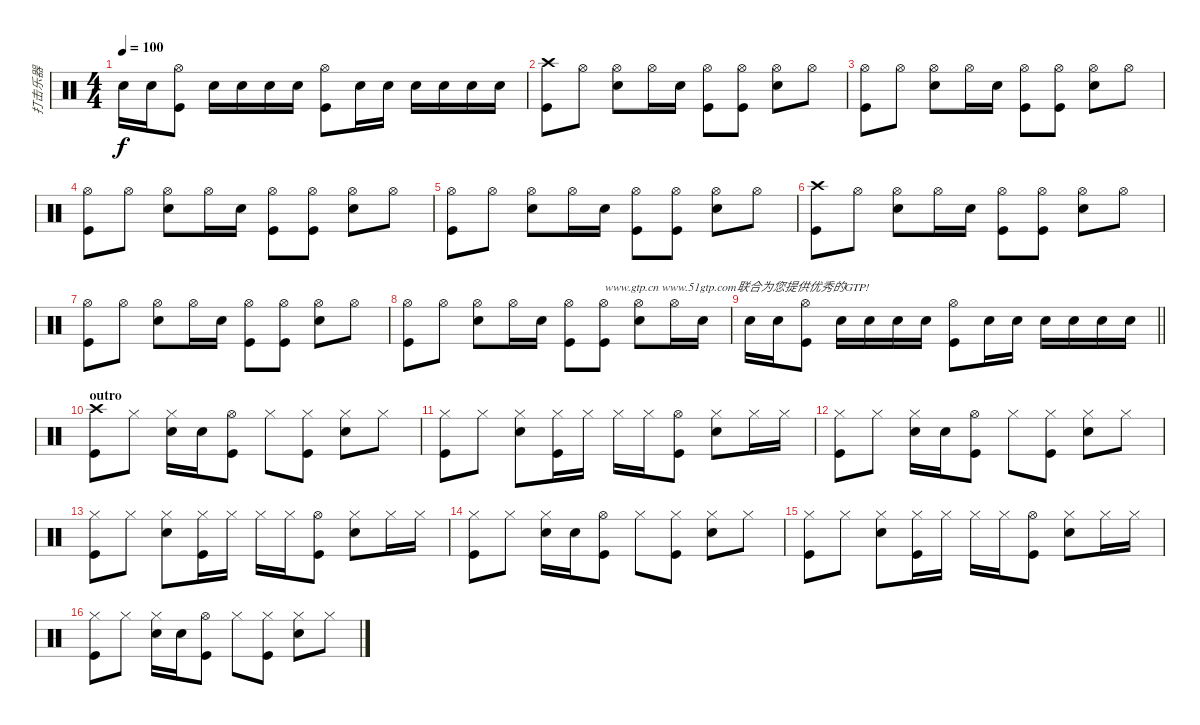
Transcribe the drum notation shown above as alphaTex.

\track ("打击乐器" "打击乐器") {instrument percussion}
\staff {score}
\articulation defaults
\ts (4 4)
\tempo 100
\clef neutral
\ks c "Electric Snare (hit)".16{dy f} "Electric Snare (hit)".16
("Hi-Hat (open)" "Kick (hit)").8 "Electric Snare (hit)".16 "Electric Snare (hit)".16 "Electric Snare (hit)".16 "Electric Snare (hit)".16 ("Hi-Hat (open)" "Kick (hit)").8 "Electric Snare (hit)".16 "Electric Snare (hit)".16 "Electric Snare (hit)".16 "Electric Snare (hit)".16 "Electric Snare (hit)".16 "Electric Snare (hit)".16 |
("Crash high (hit)" "Kick (hit)").8 "Hi-Hat (open)".8 ("Hi-Hat (open)" "Electric Snare (hit)").8 "Hi-Hat (open)".16 "Electric Snare (hit)".16 ("Hi-Hat (open)" "Kick (hit)").8 ("Hi-Hat (open)" "Kick (hit)").8 ("Hi-Hat (open)" "Electric Snare (hit)").8 "Hi-Hat (open)".8 |
("Hi-Hat (open)" "Kick (hit)").8 "Hi-Hat (open)".8 ("Hi-Hat (open)" "Electric Snare (hit)").8 "Hi-Hat (open)".16 "Electric Snare (hit)".16 ("Hi-Hat (open)" "Kick (hit)").8 ("Hi-Hat (open)" "Kick (hit)").8 ("Hi-Hat (open)" "Electric Snare (hit)").8 "Hi-Hat (open)".8 |
("Hi-Hat (open)" "Kick (hit)").8 "Hi-Hat (open)".8 ("Hi-Hat (open)" "Electric Snare (hit)").8 "Hi-Hat (open)".16 "Electric Snare (hit)".16 ("Hi-Hat (open)" "Kick (hit)").8 ("Hi-Hat (open)" "Kick (hit)").8 ("Hi-Hat (open)" "Electric Snare (hit)").8 "Hi-Hat (open)".8 |
("Hi-Hat (open)" "Kick (hit)").8 "Hi-Hat (open)".8 ("Hi-Hat (open)" "Electric Snare (hit)").8 "Hi-Hat (open)".16 "Electric Snare (hit)".16 ("Hi-Hat (open)" "Kick (hit)").8 ("Hi-Hat (open)" "Kick (hit)").8 ("Hi-Hat (open)" "Electric Snare (hit)").8 "Hi-Hat (open)".8 |
("Crash high (hit)" "Kick (hit)").8 "Hi-Hat (open)".8 ("Hi-Hat (open)" "Electric Snare (hit)").8 "Hi-Hat (open)".16 "Electric Snare (hit)".16 ("Hi-Hat (open)" "Kick (hit)").8 ("Hi-Hat (open)" "Kick (hit)").8 ("Hi-Hat (open)" "Electric Snare (hit)").8 "Hi-Hat (open)".8 |
("Hi-Hat (open)" "Kick (hit)").8 "Hi-Hat (open)".8 ("Hi-Hat (open)" "Electric Snare (hit)").8 "Hi-Hat (open)".16 "Electric Snare (hit)".16 ("Hi-Hat (open)" "Kick (hit)").8 ("Hi-Hat (open)" "Kick (hit)").8 ("Hi-Hat (open)" "Electric Snare (hit)").8 "Hi-Hat (open)".8 |
("Hi-Hat (open)" "Kick (hit)").8 "Hi-Hat (open)".8 ("Hi-Hat (open)" "Electric Snare (hit)").8 "Hi-Hat (open)".16 "Electric Snare (hit)".16 ("Hi-Hat (open)" "Kick (hit)").8 ("Hi-Hat (open)" "Kick (hit)").8{txt "www.gtp.cn www.51gtp.com联合为您提供优秀的GTP!"} ("Hi-Hat (open)" "Electric Snare (hit)").8 "Hi-Hat (open)".16 "Electric Snare (hit)".16 |
\barLineRight lightlight "Electric Snare (hit)".16 "Electric Snare (hit)".16
("Hi-Hat (open)" "Kick (hit)").8 "Electric Snare (hit)".16 "Electric Snare (hit)".16 "Electric Snare (hit)".16 "Electric Snare (hit)".16 ("Hi-Hat (open)" "Kick (hit)").8 "Electric Snare (hit)".16 "Electric Snare (hit)".16 "Electric Snare (hit)".16 "Electric Snare (hit)".16 "Electric Snare (hit)".16 "Electric Snare (hit)".16 |
\section ("" "outro")
("Crash high (hit)" "Kick (hit)").8 "Hi-Hat (closed)".8 ("Hi-Hat (closed)" "Electric Snare (hit)").16 "Electric Snare (hit)".16 ("Hi-Hat (open)" "Kick (hit)").8 "Hi-Hat (closed)".8 ("Hi-Hat (closed)" "Kick (hit)").8 ("Hi-Hat (closed)" "Electric Snare (hit)").8 "Hi-Hat (closed)".8 |
("Hi-Hat (closed)" "Kick (hit)").8 "Hi-Hat (closed)".8 ("Hi-Hat (closed)" "Electric Snare (hit)").8 ("Hi-Hat (closed)" "Kick (hit)").16 "Hi-Hat (closed)".16 "Hi-Hat (closed)".16 "Hi-Hat (closed)".16 ("Hi-Hat (open)" "Kick (hit)").8 ("Hi-Hat (closed)" "Electric Snare (hit)").8 "Hi-Hat (closed)".16 "Hi-Hat (closed)".16 |
("Hi-Hat (closed)" "Kick (hit)").8 "Hi-Hat (closed)".8 ("Hi-Hat (closed)" "Electric Snare (hit)").16 "Electric Snare (hit)".16 ("Hi-Hat (open)" "Kick (hit)").8 "Hi-Hat (closed)".8 ("Hi-Hat (closed)" "Kick (hit)").8 ("Hi-Hat (closed)" "Electric Snare (hit)").8 "Hi-Hat (closed)".8 |
("Hi-Hat (closed)" "Kick (hit)").8 "Hi-Hat (closed)".8 ("Hi-Hat (closed)" "Electric Snare (hit)").8 ("Hi-Hat (closed)" "Kick (hit)").16 "Hi-Hat (closed)".16 "Hi-Hat (closed)".16 "Hi-Hat (closed)".16 ("Hi-Hat (open)" "Kick (hit)").8 ("Hi-Hat (closed)" "Electric Snare (hit)").8 "Hi-Hat (closed)".16 "Hi-Hat (closed)".16 |
("Hi-Hat (closed)" "Kick (hit)").8 "Hi-Hat (closed)".8 ("Hi-Hat (closed)" "Electric Snare (hit)").16 "Electric Snare (hit)".16 ("Hi-Hat (open)" "Kick (hit)").8 "Hi-Hat (closed)".8 ("Hi-Hat (closed)" "Kick (hit)").8 ("Hi-Hat (closed)" "Electric Snare (hit)").8 "Hi-Hat (closed)".8 |
("Hi-Hat (closed)" "Kick (hit)").8 "Hi-Hat (closed)".8 ("Hi-Hat (closed)" "Electric Snare (hit)").8 ("Hi-Hat (closed)" "Kick (hit)").16 "Hi-Hat (closed)".16 "Hi-Hat (closed)".16 "Hi-Hat (closed)".16 ("Hi-Hat (open)" "Kick (hit)").8 ("Hi-Hat (closed)" "Electric Snare (hit)").8 "Hi-Hat (closed)".16 "Hi-Hat (closed)".16 |
("Hi-Hat (closed)" "Kick (hit)").8 "Hi-Hat (closed)".8 ("Hi-Hat (closed)" "Electric Snare (hit)").16 "Electric Snare (hit)".16 ("Hi-Hat (open)" "Kick (hit)").8 "Hi-Hat (closed)".8 ("Hi-Hat (closed)" "Kick (hit)").8 ("Hi-Hat (closed)" "Electric Snare (hit)").8 "Hi-Hat (closed)".8
